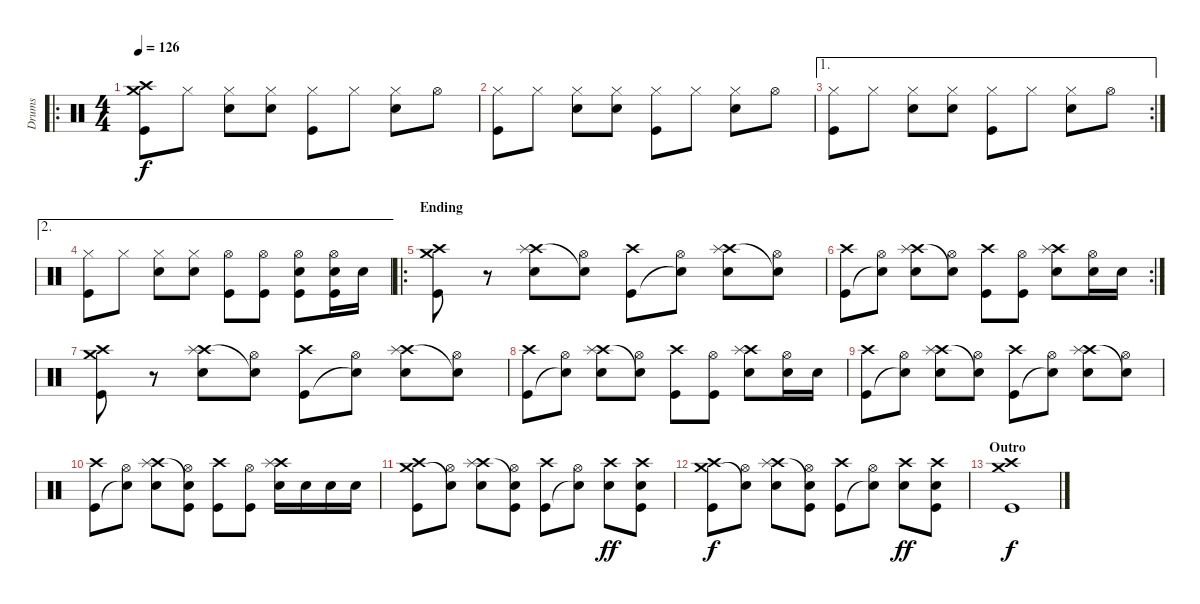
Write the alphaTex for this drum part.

\track ("Drums" "Drums") {instrument percussion}
\staff {score}
\articulation defaults
\ro
\ts (4 4)
\tempo 126
\clef neutral
\ks c
("Crash high (hit)" "Crash medium (hit)" "Kick (hit)").8{dy f} "Hi-Hat (closed)".8 ("Hi-Hat (closed)" "Electric Snare (hit)").8 ("Hi-Hat (closed)" "Electric Snare (hit)").8 ("Hi-Hat (closed)" "Kick (hit)").8 "Hi-Hat (closed)".8 ("Hi-Hat (closed)" "Electric Snare (hit)").8 "Hi-Hat (open)".8 |
("Hi-Hat (closed)" "Kick (hit)").8 "Hi-Hat (closed)".8 ("Hi-Hat (closed)" "Electric Snare (hit)").8 ("Hi-Hat (closed)" "Electric Snare (hit)").8 ("Hi-Hat (closed)" "Kick (hit)").8 "Hi-Hat (closed)".8 ("Hi-Hat (closed)" "Electric Snare (hit)").8 "Hi-Hat (open)".8 |
\ae 1
\rc 2
("Hi-Hat (closed)" "Kick (hit)").8 "Hi-Hat (closed)".8 ("Hi-Hat (closed)" "Electric Snare (hit)").8 ("Hi-Hat (closed)" "Electric Snare (hit)").8 ("Hi-Hat (closed)" "Kick (hit)").8 "Hi-Hat (closed)".8 ("Hi-Hat (closed)" "Electric Snare (hit)").8 "Hi-Hat (open)".8 |
\ae 2
("Hi-Hat (closed)" "Kick (hit)").8 "Hi-Hat (closed)".8 ("Hi-Hat (closed)" "Electric Snare (hit)").8 ("Hi-Hat (closed)" "Electric Snare (hit)").8 ("Hi-Hat (open)" "Kick (hit)").8 ("Hi-Hat (open)" "Kick (hit)").8 ("Hi-Hat (open)" "Electric Snare (hit)" "Kick (hit)").8 ("Hi-Hat (open)" "Electric Snare (hit)" "Kick (hit)").16 "Electric Snare (hit)".16 |
\ro
\section ("" "Ending")
("Crash high (hit)" "Crash medium (hit)" "Kick (hit)").8 r.8 ("Crash high (hit)" "Splash (hit)" "Electric Snare (hit)").8 ("Hi-Hat (open)" "Snare (hit)"{t}).8 ("Crash high (hit)" "Kick (hit)").8 ("Hi-Hat (open)" "Snare (hit)"{t}).8 ("Crash high (hit)" "Splash (hit)" "Electric Snare (hit)").8 ("Hi-Hat (open)" "Snare (hit)"{t}).8 |
\rc 2
("Crash high (hit)" "Kick (hit)").8 ("Hi-Hat (open)" "Snare (hit)"{t}).8 ("Crash high (hit)" "Splash (hit)" "Electric Snare (hit)").8 ("Hi-Hat (open)" "Snare (hit)"{t}).8 ("Crash high (hit)" "Kick (hit)").8 ("Hi-Hat (open)" "Kick (hit)").8 ("Crash high (hit)" "Splash (hit)" "Electric Snare (hit)").8 ("Hi-Hat (open)" "Electric Snare (hit)").16 "Electric Snare (hit)".16 |
("Crash high (hit)" "Crash medium (hit)" "Kick (hit)").8 r.8 ("Crash high (hit)" "Splash (hit)" "Electric Snare (hit)").8 ("Hi-Hat (open)" "Snare (hit)"{t}).8 ("Crash high (hit)" "Kick (hit)").8 ("Hi-Hat (open)" "Snare (hit)"{t}).8 ("Crash high (hit)" "Splash (hit)" "Electric Snare (hit)").8 ("Hi-Hat (open)" "Snare (hit)"{t}).8 |
("Crash high (hit)" "Kick (hit)").8 ("Hi-Hat (open)" "Snare (hit)"{t}).8 ("Crash high (hit)" "Splash (hit)" "Electric Snare (hit)").8 ("Hi-Hat (open)" "Snare (hit)"{t}).8 ("Crash high (hit)" "Kick (hit)").8 ("Hi-Hat (open)" "Kick (hit)").8 ("Crash high (hit)" "Splash (hit)" "Electric Snare (hit)").8 ("Hi-Hat (open)" "Electric Snare (hit)").16 "Electric Snare (hit)".16 |
("Crash high (hit)" "Kick (hit)").8 ("Hi-Hat (open)" "Snare (hit)"{t}).8 ("Crash high (hit)" "Splash (hit)" "Electric Snare (hit)").8 ("Hi-Hat (open)" "Snare (hit)"{t}).8 ("Crash high (hit)" "Kick (hit)").8 ("Hi-Hat (open)" "Snare (hit)"{t}).8 ("Crash high (hit)" "Splash (hit)" "Electric Snare (hit)").8 ("Hi-Hat (open)" "Snare (hit)"{t}).8 |
("Crash high (hit)" "Kick (hit)").8 ("Hi-Hat (open)" "Snare (hit)"{t}).8 ("Crash high (hit)" "Splash (hit)" "Electric Snare (hit)").8 ("Hi-Hat (open)" "Snare (hit)"{t} "Kick (hit)").8 ("Crash high (hit)" "Kick (hit)").8 ("Hi-Hat (open)" "Kick (hit)").8 ("Crash high (hit)" "Splash (hit)" "Electric Snare (hit)").16 "Electric Snare (hit)".16 "Electric Snare (hit)".16 "Electric Snare (hit)".16 |
("Crash high (hit)" "Crash medium (hit)" "Kick (hit)").8 ("Hi-Hat (open)" "Snare (hit)"{t}).8 ("Crash high (hit)" "Splash (hit)" "Electric Snare (hit)").8 ("Hi-Hat (open)" "Snare (hit)"{t} "Kick (hit)").8 ("Crash high (hit)" "Kick (hit)").8 ("Hi-Hat (open)" "Snare (hit)"{t}).8 ("Crash high (hit)" "Electric Snare (hit)").8{dy ff} ("Crash high (hit)" "Electric Snare (hit)" "Kick (hit)").8 |
("Crash high (hit)" "Crash medium (hit)" "Kick (hit)").8{dy f} ("Hi-Hat (open)" "Snare (hit)"{t}).8 ("Crash high (hit)" "Splash (hit)" "Electric Snare (hit)").8 ("Hi-Hat (open)" "Snare (hit)"{t} "Kick (hit)").8 ("Crash high (hit)" "Kick (hit)").8 ("Hi-Hat (open)" "Snare (hit)"{t}).8 ("Crash high (hit)" "Electric Snare (hit)").8{dy ff} ("Crash high (hit)" "Electric Snare (hit)" "Kick (hit)").8 |
\section ("" "Outro")
("Crash high (hit)" "Crash medium (hit)" "Kick (hit)").1{dy f}
